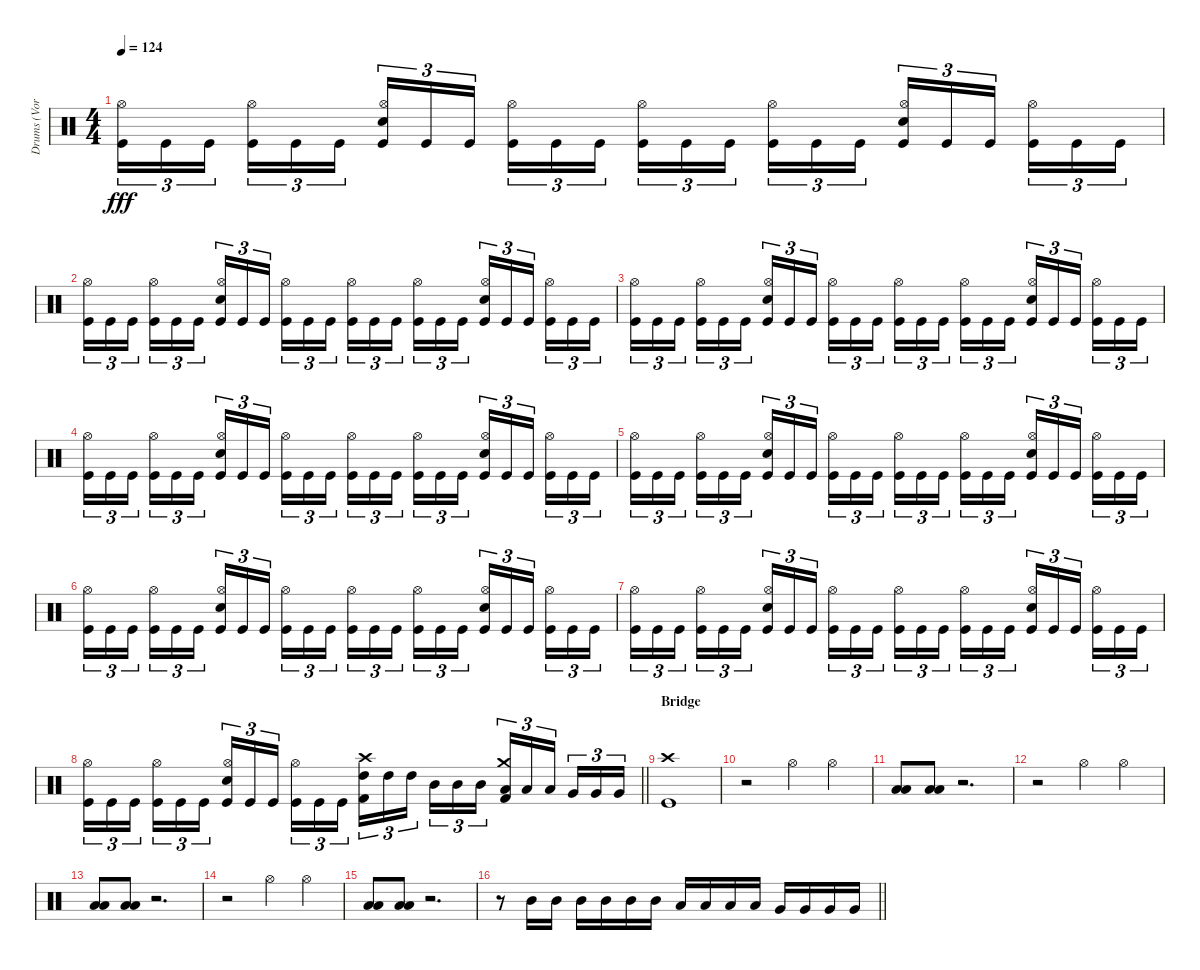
\track ("Drums (Vortex)" "Drums (Vor") {instrument percussion}
\staff {score}
\articulation defaults
\ts (4 4)
\tempo 124
\clef neutral
\ks c
("Kick (hit)" "Hi-Hat (open)").16{tu (3 2) dy fff} "Kick (hit)".16{tu (3 2)} "Kick (hit)".16{tu (3 2) beam splitsecondary} ("Kick (hit)" "Hi-Hat (open)").16{tu (3 2)} "Kick (hit)".16{tu (3 2)} "Kick (hit)".16{tu (3 2)} ("Kick (hit)" "Snare (hit) 2" "Hi-Hat (open)").16{tu (3 2)} "Kick (hit)".16{tu (3 2)} "Kick (hit)".16{tu (3 2) beam splitsecondary} ("Kick (hit)" "Hi-Hat (open)").16{tu (3 2)} "Kick (hit)".16{tu (3 2)} "Kick (hit)".16{tu (3 2)} ("Kick (hit)" "Hi-Hat (open)").16{tu (3 2)} "Kick (hit)".16{tu (3 2)} "Kick (hit)".16{tu (3 2) beam splitsecondary} ("Kick (hit)" "Hi-Hat (open)").16{tu (3 2)} "Kick (hit)".16{tu (3 2)} "Kick (hit)".16{tu (3 2)} ("Kick (hit)" "Snare (hit) 2" "Hi-Hat (open)").16{tu (3 2)} "Kick (hit)".16{tu (3 2)} "Kick (hit)".16{tu (3 2) beam splitsecondary} ("Kick (hit)" "Hi-Hat (open)").16{tu (3 2)} "Kick (hit)".16{tu (3 2)} "Kick (hit)".16{tu (3 2)} |
("Kick (hit)" "Hi-Hat (open)").16{tu (3 2)} "Kick (hit)".16{tu (3 2)} "Kick (hit)".16{tu (3 2) beam splitsecondary} ("Kick (hit)" "Hi-Hat (open)").16{tu (3 2)} "Kick (hit)".16{tu (3 2)} "Kick (hit)".16{tu (3 2)} ("Kick (hit)" "Snare (hit) 2" "Hi-Hat (open)").16{tu (3 2)} "Kick (hit)".16{tu (3 2)} "Kick (hit)".16{tu (3 2) beam splitsecondary} ("Kick (hit)" "Hi-Hat (open)").16{tu (3 2)} "Kick (hit)".16{tu (3 2)} "Kick (hit)".16{tu (3 2)} ("Kick (hit)" "Hi-Hat (open)").16{tu (3 2)} "Kick (hit)".16{tu (3 2)} "Kick (hit)".16{tu (3 2) beam splitsecondary} ("Kick (hit)" "Hi-Hat (open)").16{tu (3 2)} "Kick (hit)".16{tu (3 2)} "Kick (hit)".16{tu (3 2)} ("Kick (hit)" "Snare (hit) 2" "Hi-Hat (open)").16{tu (3 2)} "Kick (hit)".16{tu (3 2)} "Kick (hit)".16{tu (3 2) beam splitsecondary} ("Kick (hit)" "Hi-Hat (open)").16{tu (3 2)} "Kick (hit)".16{tu (3 2)} "Kick (hit)".16{tu (3 2)} |
("Kick (hit)" "Hi-Hat (open)").16{tu (3 2)} "Kick (hit)".16{tu (3 2)} "Kick (hit)".16{tu (3 2) beam splitsecondary} ("Kick (hit)" "Hi-Hat (open)").16{tu (3 2)} "Kick (hit)".16{tu (3 2)} "Kick (hit)".16{tu (3 2)} ("Kick (hit)" "Snare (hit) 2" "Hi-Hat (open)").16{tu (3 2)} "Kick (hit)".16{tu (3 2)} "Kick (hit)".16{tu (3 2) beam splitsecondary} ("Kick (hit)" "Hi-Hat (open)").16{tu (3 2)} "Kick (hit)".16{tu (3 2)} "Kick (hit)".16{tu (3 2)} ("Kick (hit)" "Hi-Hat (open)").16{tu (3 2)} "Kick (hit)".16{tu (3 2)} "Kick (hit)".16{tu (3 2) beam splitsecondary} ("Kick (hit)" "Hi-Hat (open)").16{tu (3 2)} "Kick (hit)".16{tu (3 2)} "Kick (hit)".16{tu (3 2)} ("Kick (hit)" "Snare (hit) 2" "Hi-Hat (open)").16{tu (3 2)} "Kick (hit)".16{tu (3 2)} "Kick (hit)".16{tu (3 2) beam splitsecondary} ("Kick (hit)" "Hi-Hat (open)").16{tu (3 2)} "Kick (hit)".16{tu (3 2)} "Kick (hit)".16{tu (3 2)} |
("Kick (hit)" "Hi-Hat (open)").16{tu (3 2)} "Kick (hit)".16{tu (3 2)} "Kick (hit)".16{tu (3 2) beam splitsecondary} ("Kick (hit)" "Hi-Hat (open)").16{tu (3 2)} "Kick (hit)".16{tu (3 2)} "Kick (hit)".16{tu (3 2)} ("Kick (hit)" "Snare (hit) 2" "Hi-Hat (open)").16{tu (3 2)} "Kick (hit)".16{tu (3 2)} "Kick (hit)".16{tu (3 2) beam splitsecondary} ("Kick (hit)" "Hi-Hat (open)").16{tu (3 2)} "Kick (hit)".16{tu (3 2)} "Kick (hit)".16{tu (3 2)} ("Kick (hit)" "Hi-Hat (open)").16{tu (3 2)} "Kick (hit)".16{tu (3 2)} "Kick (hit)".16{tu (3 2) beam splitsecondary} ("Kick (hit)" "Hi-Hat (open)").16{tu (3 2)} "Kick (hit)".16{tu (3 2)} "Kick (hit)".16{tu (3 2)} ("Kick (hit)" "Snare (hit) 2" "Hi-Hat (open)").16{tu (3 2)} "Kick (hit)".16{tu (3 2)} "Kick (hit)".16{tu (3 2) beam splitsecondary} ("Kick (hit)" "Hi-Hat (open)").16{tu (3 2)} "Kick (hit)".16{tu (3 2)} "Kick (hit)".16{tu (3 2)} |
("Kick (hit)" "Hi-Hat (open)").16{tu (3 2)} "Kick (hit)".16{tu (3 2)} "Kick (hit)".16{tu (3 2) beam splitsecondary} ("Kick (hit)" "Hi-Hat (open)").16{tu (3 2)} "Kick (hit)".16{tu (3 2)} "Kick (hit)".16{tu (3 2)} ("Kick (hit)" "Snare (hit) 2" "Hi-Hat (open)").16{tu (3 2)} "Kick (hit)".16{tu (3 2)} "Kick (hit)".16{tu (3 2) beam splitsecondary} ("Kick (hit)" "Hi-Hat (open)").16{tu (3 2)} "Kick (hit)".16{tu (3 2)} "Kick (hit)".16{tu (3 2)} ("Kick (hit)" "Hi-Hat (open)").16{tu (3 2)} "Kick (hit)".16{tu (3 2)} "Kick (hit)".16{tu (3 2) beam splitsecondary} ("Kick (hit)" "Hi-Hat (open)").16{tu (3 2)} "Kick (hit)".16{tu (3 2)} "Kick (hit)".16{tu (3 2)} ("Kick (hit)" "Snare (hit) 2" "Hi-Hat (open)").16{tu (3 2)} "Kick (hit)".16{tu (3 2)} "Kick (hit)".16{tu (3 2) beam splitsecondary} ("Kick (hit)" "Hi-Hat (open)").16{tu (3 2)} "Kick (hit)".16{tu (3 2)} "Kick (hit)".16{tu (3 2)} |
("Kick (hit)" "Hi-Hat (open)").16{tu (3 2)} "Kick (hit)".16{tu (3 2)} "Kick (hit)".16{tu (3 2) beam splitsecondary} ("Kick (hit)" "Hi-Hat (open)").16{tu (3 2)} "Kick (hit)".16{tu (3 2)} "Kick (hit)".16{tu (3 2)} ("Kick (hit)" "Snare (hit) 2" "Hi-Hat (open)").16{tu (3 2)} "Kick (hit)".16{tu (3 2)} "Kick (hit)".16{tu (3 2) beam splitsecondary} ("Kick (hit)" "Hi-Hat (open)").16{tu (3 2)} "Kick (hit)".16{tu (3 2)} "Kick (hit)".16{tu (3 2)} ("Kick (hit)" "Hi-Hat (open)").16{tu (3 2)} "Kick (hit)".16{tu (3 2)} "Kick (hit)".16{tu (3 2) beam splitsecondary} ("Kick (hit)" "Hi-Hat (open)").16{tu (3 2)} "Kick (hit)".16{tu (3 2)} "Kick (hit)".16{tu (3 2)} ("Kick (hit)" "Snare (hit) 2" "Hi-Hat (open)").16{tu (3 2)} "Kick (hit)".16{tu (3 2)} "Kick (hit)".16{tu (3 2) beam splitsecondary} ("Kick (hit)" "Hi-Hat (open)").16{tu (3 2)} "Kick (hit)".16{tu (3 2)} "Kick (hit)".16{tu (3 2)} |
("Kick (hit)" "Hi-Hat (open)").16{tu (3 2)} "Kick (hit)".16{tu (3 2)} "Kick (hit)".16{tu (3 2) beam splitsecondary} ("Kick (hit)" "Hi-Hat (open)").16{tu (3 2)} "Kick (hit)".16{tu (3 2)} "Kick (hit)".16{tu (3 2)} ("Kick (hit)" "Snare (hit) 2" "Hi-Hat (open)").16{tu (3 2)} "Kick (hit)".16{tu (3 2)} "Kick (hit)".16{tu (3 2) beam splitsecondary} ("Kick (hit)" "Hi-Hat (open)").16{tu (3 2)} "Kick (hit)".16{tu (3 2)} "Kick (hit)".16{tu (3 2)} ("Kick (hit)" "Hi-Hat (open)").16{tu (3 2)} "Kick (hit)".16{tu (3 2)} "Kick (hit)".16{tu (3 2) beam splitsecondary} ("Kick (hit)" "Hi-Hat (open)").16{tu (3 2)} "Kick (hit)".16{tu (3 2)} "Kick (hit)".16{tu (3 2)} ("Kick (hit)" "Snare (hit) 2" "Hi-Hat (open)").16{tu (3 2)} "Kick (hit)".16{tu (3 2)} "Kick (hit)".16{tu (3 2) beam splitsecondary} ("Kick (hit)" "Hi-Hat (open)").16{tu (3 2)} "Kick (hit)".16{tu (3 2)} "Kick (hit)".16{tu (3 2)} |
\barLineRight lightlight
("Kick (hit)" "Hi-Hat (open)").16{tu (3 2)} "Kick (hit)".16{tu (3 2)} "Kick (hit)".16{tu (3 2) beam splitsecondary} ("Kick (hit)" "Hi-Hat (open)").16{tu (3 2)} "Kick (hit)".16{tu (3 2)} "Kick (hit)".16{tu (3 2)} ("Kick (hit)" "Snare (hit) 2" "Hi-Hat (open)").16{tu (3 2)} "Kick (hit)".16{tu (3 2)} "Kick (hit)".16{tu (3 2) beam splitsecondary} ("Kick (hit)" "Hi-Hat (open)").16{tu (3 2)} "Kick (hit)".16{tu (3 2)} "Kick (hit)".16{tu (3 2)} ("Crash high (hit)" "High Tom (hit)" "Kick (hit) 2").16{tu (3 2)} "High Tom (hit)".16{tu (3 2)} "High Tom (hit)".16{tu (3 2) beam splitsecondary} "Mid Tom (hit)".16{tu (3 2)} "Mid Tom (hit)".16{tu (3 2)} "Mid Tom (hit)".16{tu (3 2)} ("Crash medium (hit)" "Low Tom (hit)" "Kick (hit) 2").16{tu (3 2)} "Low Tom (hit)".16{tu (3 2)} "Low Tom (hit)".16{tu (3 2) beam splitsecondary} "Very Low Tom (hit)".16{tu (3 2)} "Very Low Tom (hit)".16{tu (3 2)} "Very Low Tom (hit)".16{tu (3 2)} |
\section ("" "Bridge")
("Crash high (hit)" "Kick (hit)").1 |
r.2 "Hi-Hat (open)".4 "Hi-Hat (open)".4 |
("Low Tom (hit)" "Low Floor Tom (hit)").8 ("Low Tom (hit)" "Low Floor Tom (hit)").8 r.2{d} |
r.2 "Hi-Hat (open)".4 "Hi-Hat (open)".4 |
("Low Tom (hit)" "Low Floor Tom (hit)").8 ("Low Tom (hit)" "Low Floor Tom (hit)").8 r.2{d} |
r.2 "Hi-Hat (open)".4 "Hi-Hat (open)".4 |
("Low Tom (hit)" "Low Floor Tom (hit)").8 ("Low Tom (hit)" "Low Floor Tom (hit)").8 r.2{d} |
\barLineRight lightlight
r.8 "Mid Tom (hit)".16 "Mid Tom (hit)".16 "Mid Tom (hit)".16 "Mid Tom (hit)".16 "Mid Tom (hit)".16 "Mid Tom (hit)".16 "Low Tom (hit)".16 "Low Tom (hit)".16 "Low Tom (hit)".16 "Low Tom (hit)".16 "Very Low Tom (hit)".16 "Very Low Tom (hit)".16 "Very Low Tom (hit)".16 "Very Low Tom (hit)".16
